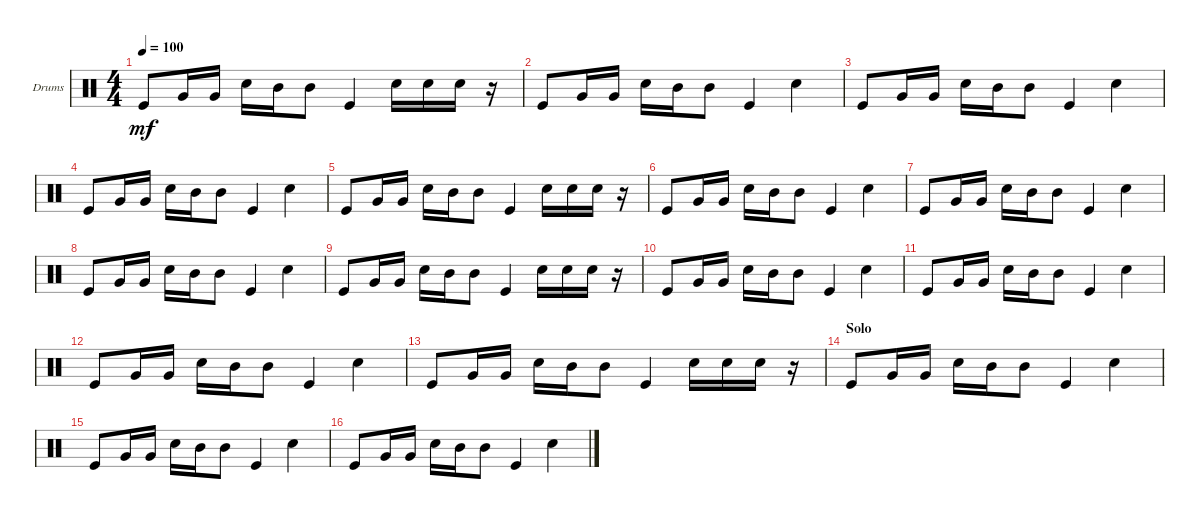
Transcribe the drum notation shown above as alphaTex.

\defaultSystemsLayout 4
\bracketExtendMode groupsimilarinstruments
\firstSystemTrackNameOrientation horizontal
\otherSystemsTrackNameOrientation horizontal
\track ("Dominic Howard" "Drums") {instrument percussion}
\staff {score}
\articulation defaults
\ts (4 4)
\tempo 100
\clef neutral
\ks c "Kick (hit)".8{dy mf} "Very Low Tom (hit)".16 "Very Low Tom (hit)".16 "Snare (hit) 2".16 "Mid Tom (hit)".16 "Mid Tom (hit)".8 "Kick (hit)".4 "Snare (hit) 2".16 "Snare (hit) 2".16 "Snare (hit) 2".16
r.16 |
"Kick (hit)".8 "Very Low Tom (hit)".16 "Very Low Tom (hit)".16 "Snare (hit) 2".16 "Mid Tom (hit)".16 "Mid Tom (hit)".8 "Kick (hit)".4 "Snare (hit) 2".4 |
"Kick (hit)".8 "Very Low Tom (hit)".16 "Very Low Tom (hit)".16 "Snare (hit) 2".16 "Mid Tom (hit)".16 "Mid Tom (hit)".8 "Kick (hit)".4 "Snare (hit) 2".4 |
"Kick (hit)".8 "Very Low Tom (hit)".16 "Very Low Tom (hit)".16 "Snare (hit) 2".16 "Mid Tom (hit)".16 "Mid Tom (hit)".8 "Kick (hit)".4 "Snare (hit) 2".4 |
"Kick (hit)".8 "Very Low Tom (hit)".16 "Very Low Tom (hit)".16 "Snare (hit) 2".16 "Mid Tom (hit)".16 "Mid Tom (hit)".8 "Kick (hit)".4 "Snare (hit) 2".16 "Snare (hit) 2".16 "Snare (hit) 2".16 r.16 |
"Kick (hit)".8 "Very Low Tom (hit)".16 "Very Low Tom (hit)".16 "Snare (hit) 2".16 "Mid Tom (hit)".16 "Mid Tom (hit)".8 "Kick (hit)".4 "Snare (hit) 2".4 |
"Kick (hit)".8 "Very Low Tom (hit)".16 "Very Low Tom (hit)".16 "Snare (hit) 2".16 "Mid Tom (hit)".16 "Mid Tom (hit)".8 "Kick (hit)".4 "Snare (hit) 2".4 |
"Kick (hit)".8 "Very Low Tom (hit)".16 "Very Low Tom (hit)".16 "Snare (hit) 2".16 "Mid Tom (hit)".16 "Mid Tom (hit)".8 "Kick (hit)".4 "Snare (hit) 2".4 |
"Kick (hit)".8 "Very Low Tom (hit)".16 "Very Low Tom (hit)".16 "Snare (hit) 2".16 "Mid Tom (hit)".16 "Mid Tom (hit)".8 "Kick (hit)".4 "Snare (hit) 2".16 "Snare (hit) 2".16 "Snare (hit) 2".16 r.16 |
"Kick (hit)".8 "Very Low Tom (hit)".16 "Very Low Tom (hit)".16 "Snare (hit) 2".16 "Mid Tom (hit)".16 "Mid Tom (hit)".8 "Kick (hit)".4 "Snare (hit) 2".4 |
"Kick (hit)".8 "Very Low Tom (hit)".16 "Very Low Tom (hit)".16 "Snare (hit) 2".16 "Mid Tom (hit)".16 "Mid Tom (hit)".8 "Kick (hit)".4 "Snare (hit) 2".4 |
"Kick (hit)".8 "Very Low Tom (hit)".16 "Very Low Tom (hit)".16 "Snare (hit) 2".16 "Mid Tom (hit)".16 "Mid Tom (hit)".8 "Kick (hit)".4 "Snare (hit) 2".4 |
"Kick (hit)".8 "Very Low Tom (hit)".16 "Very Low Tom (hit)".16 "Snare (hit) 2".16 "Mid Tom (hit)".16 "Mid Tom (hit)".8 "Kick (hit)".4 "Snare (hit) 2".16 "Snare (hit) 2".16 "Snare (hit) 2".16 r.16 |
\section ("" "Solo")
"Kick (hit)".8 "Very Low Tom (hit)".16 "Very Low Tom (hit)".16 "Snare (hit) 2".16 "Mid Tom (hit)".16 "Mid Tom (hit)".8 "Kick (hit)".4 "Snare (hit) 2".4 |
"Kick (hit)".8 "Very Low Tom (hit)".16 "Very Low Tom (hit)".16 "Snare (hit) 2".16 "Mid Tom (hit)".16 "Mid Tom (hit)".8 "Kick (hit)".4 "Snare (hit) 2".4 |
"Kick (hit)".8 "Very Low Tom (hit)".16 "Very Low Tom (hit)".16 "Snare (hit) 2".16 "Mid Tom (hit)".16 "Mid Tom (hit)".8 "Kick (hit)".4 "Snare (hit) 2".4
